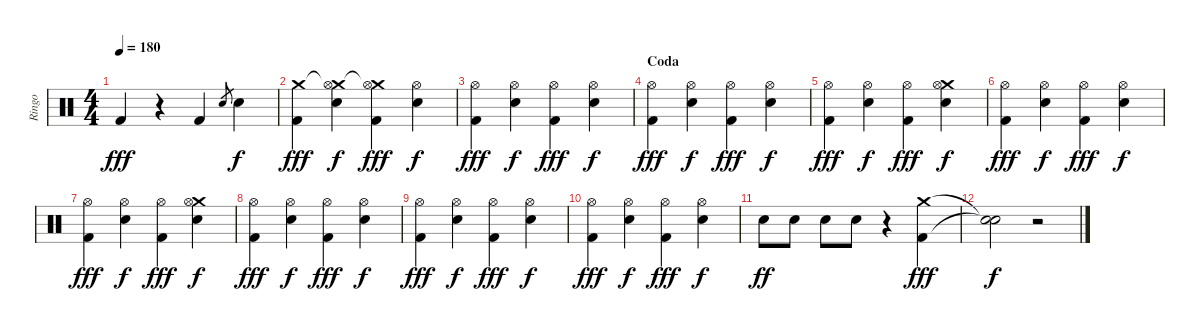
\track ("Ringo" "Ringo") {instrument percussion}
\staff {score}
\articulation defaults
\ts (4 4)
\tempo 180
\clef neutral
\ks c "Kick (hit) 2".4{dy fff}
r.4 "Kick (hit) 2".4 "Snare (hit) 2".8{gr} "Snare (hit) 2".4{dy f} |
("Crash medium (hit)" "Kick (hit) 2").4{dy fff} ("Crash medium (hit)"{t} "Hi-Hat (open)" "Snare (hit) 2").4{dy f} ("Crash medium (hit)"{t} "Hi-Hat (open)" "Kick (hit) 2").4{dy fff} ("Hi-Hat (open)" "Snare (hit) 2").4{dy f} |
("Hi-Hat (open)" "Kick (hit) 2").4{dy fff} ("Hi-Hat (open)" "Snare (hit) 2").4{dy f} ("Hi-Hat (open)" "Kick (hit) 2").4{dy fff} ("Hi-Hat (open)" "Snare (hit) 2").4{dy f} |
\section ("" "Coda")
("Hi-Hat (open)" "Kick (hit) 2").4{dy fff} ("Hi-Hat (open)" "Snare (hit) 2").4{dy f} ("Hi-Hat (open)" "Kick (hit) 2").4{dy fff} ("Hi-Hat (open)" "Snare (hit) 2").4{dy f} |
("Hi-Hat (open)" "Kick (hit) 2").4{dy fff} ("Hi-Hat (open)" "Snare (hit) 2").4{dy f} ("Hi-Hat (open)" "Kick (hit) 2").4{dy fff} ("Crash medium (hit)" "Hi-Hat (open)" "Snare (hit) 2").4{dy f} |
("Hi-Hat (open)" "Kick (hit) 2").4{dy fff} ("Hi-Hat (open)" "Snare (hit) 2").4{dy f} ("Hi-Hat (open)" "Kick (hit) 2").4{dy fff} ("Hi-Hat (open)" "Snare (hit) 2").4{dy f} |
("Hi-Hat (open)" "Kick (hit) 2").4{dy fff} ("Hi-Hat (open)" "Snare (hit) 2").4{dy f} ("Hi-Hat (open)" "Kick (hit) 2").4{dy fff} ("Crash medium (hit)" "Hi-Hat (open)" "Snare (hit) 2").4{dy f} |
("Hi-Hat (open)" "Kick (hit) 2").4{dy fff} ("Hi-Hat (open)" "Snare (hit) 2").4{dy f} ("Hi-Hat (open)" "Kick (hit) 2").4{dy fff} ("Hi-Hat (open)" "Snare (hit) 2").4{dy f} |
("Hi-Hat (open)" "Kick (hit) 2").4{dy fff} ("Hi-Hat (open)" "Snare (hit) 2").4{dy f} ("Hi-Hat (open)" "Kick (hit) 2").4{dy fff} ("Hi-Hat (open)" "Snare (hit) 2").4{dy f} |
("Hi-Hat (open)" "Kick (hit) 2").4{dy fff} ("Hi-Hat (open)" "Snare (hit) 2").4{dy f} ("Hi-Hat (open)" "Kick (hit) 2").4{dy fff} ("Hi-Hat (open)" "Snare (hit) 2").4{dy f} |
"Snare (hit) 2".8{dy ff} "Snare (hit) 2".8 "Snare (hit) 2".8 "Snare (hit) 2".8 r.4 ("Crash medium (hit)" "Kick (hit) 2").4{dy fff} |
("Snare (hit)"{t} "Snare (hit)"{t}).2{dy f} r.2
